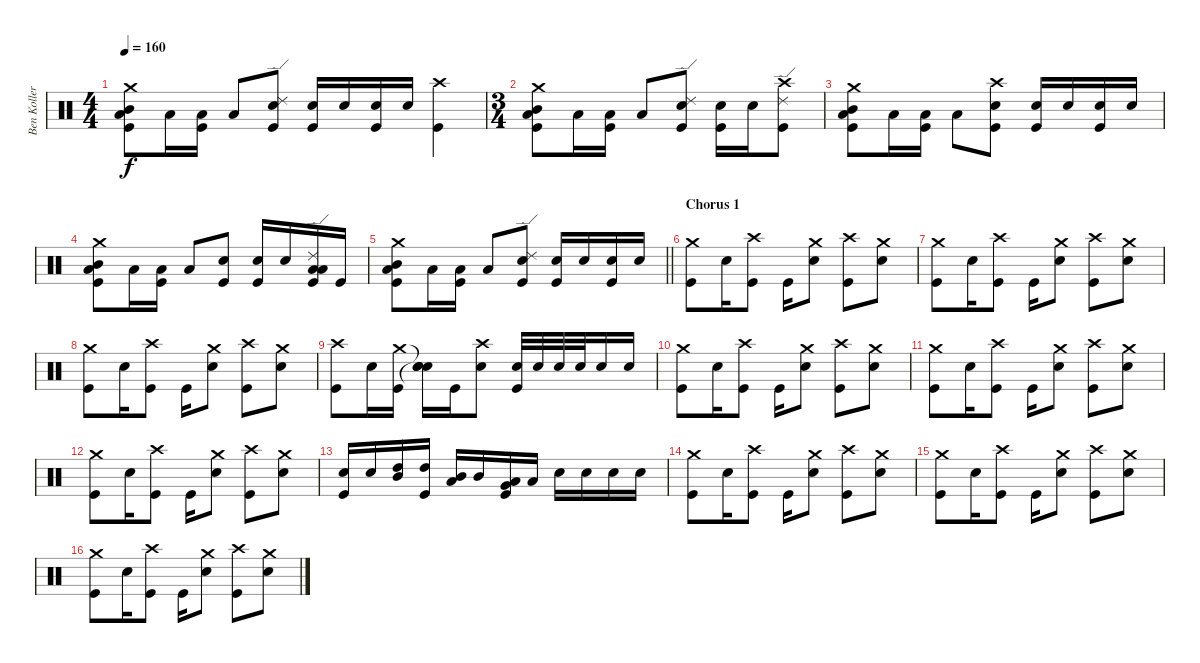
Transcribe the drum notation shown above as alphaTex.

\track ("Ben Koller" "Ben Koller") {instrument percussion}
\staff {score}
\articulation defaults
\ts (4 4)
\tempo 160
\clef neutral
\ks c
("Crash medium (hit)" "Mid Tom (hit)" "Low Tom (hit)" "Kick (hit)").8{dy f} "Low Tom (hit)".16 ("Low Tom (hit)" "Kick (hit)").16 "Low Tom (hit)".8 ("Ride (edge) 2" "Electric Snare (hit)" "Kick (hit)").8 ("Electric Snare (hit)" "Kick (hit)").16 "Electric Snare (hit)".16 ("Electric Snare (hit)" "Kick (hit)").16 "Electric Snare (hit)".16 ("Crash high (hit)" "Kick (hit)").4 |
\ts (3 4)
("Crash medium (hit)" "Mid Tom (hit)" "Low Tom (hit)" "Kick (hit)").8 "Low Tom (hit)".16 ("Low Tom (hit)" "Kick (hit)").16 "Low Tom (hit)".8 ("Ride (edge) 2" "Electric Snare (hit)" "Kick (hit)").8 ("Electric Snare (hit)" "Kick (hit)").16 "Electric Snare (hit)".16 ("Ride (edge) 2" "Crash high (hit)" "Kick (hit)").8 |
("Crash medium (hit)" "Mid Tom (hit)" "Low Tom (hit)" "Kick (hit)").8 "Low Tom (hit)".16 ("Low Tom (hit)" "Kick (hit)").16 "Low Tom (hit)".8 ("Crash high (hit)" "Electric Snare (hit)" "Kick (hit)").8 ("Electric Snare (hit)" "Kick (hit)").16 "Electric Snare (hit)".16 ("Electric Snare (hit)" "Kick (hit)").16 "Electric Snare (hit)".16 |
("Crash medium (hit)" "Mid Tom (hit)" "Low Tom (hit)" "Kick (hit)").8 "Low Tom (hit)".16 ("Low Tom (hit)" "Kick (hit)").16 "Low Tom (hit)".8 ("Electric Snare (hit)" "Kick (hit)").8 ("Electric Snare (hit)" "Kick (hit)").16 "Electric Snare (hit)".16 ("Ride (edge) 2" "Low Tom (hit)" "Low Tom (hit)" "Kick (hit)").16 "Kick (hit)".16 |
\barLineRight lightlight
("Crash medium (hit)" "Mid Tom (hit)" "Low Tom (hit)" "Kick (hit)").8 "Low Tom (hit)".16 ("Low Tom (hit)" "Kick (hit)").16 "Low Tom (hit)".8 ("Ride (edge) 2" "Electric Snare (hit)" "Kick (hit)").8 ("Electric Snare (hit)" "Kick (hit)").16 "Electric Snare (hit)".16 ("Electric Snare (hit)" "Kick (hit)").16 "Electric Snare (hit)".16 |
\section ("" "Chorus 1")
("Crash medium (hit)" "Kick (hit)").8 "Electric Snare (hit)".16 ("Crash high (hit)" "Kick (hit)").8 "Kick (hit)".16 ("Crash medium (hit)" "Electric Snare (hit)").8 ("Crash high (hit)" "Kick (hit)").8 ("Crash medium (hit)" "Electric Snare (hit)").8 |
("Crash medium (hit)" "Kick (hit)").8 "Electric Snare (hit)".16 ("Crash high (hit)" "Kick (hit)").8 "Kick (hit)".16 ("Crash medium (hit)" "Electric Snare (hit)").8 ("Crash high (hit)" "Kick (hit)").8 ("Crash medium (hit)" "Electric Snare (hit)").8 |
("Crash medium (hit)" "Kick (hit)").8 "Electric Snare (hit)".16 ("Crash high (hit)" "Kick (hit)").8 "Kick (hit)".16 ("Crash medium (hit)" "Electric Snare (hit)").8 ("Crash high (hit)" "Kick (hit)").8 ("Crash medium (hit)" "Electric Snare (hit)").8 |
("Crash high (hit)" "Kick (hit)").8 "Electric Snare (hit)".16 ("Crash medium (hit)" "Kick (hit)").16 ("Snare (hit)"{t} "Snare (hit)"{t} "Snare (hit)").16 "Kick (hit)".16 ("Crash high (hit)" "Electric Snare (hit)").8 ("Electric Snare (hit)" "Kick (hit)").32 "Electric Snare (hit)".32 "Electric Snare (hit)".32 "Electric Snare (hit)".32 "Electric Snare (hit)".16 "Electric Snare (hit)".16 |
("Crash medium (hit)" "Kick (hit)").8 "Electric Snare (hit)".16 ("Crash high (hit)" "Kick (hit)").8 "Kick (hit)".16 ("Crash medium (hit)" "Electric Snare (hit)").8 ("Crash high (hit)" "Kick (hit)").8 ("Crash medium (hit)" "Electric Snare (hit)").8 |
("Crash medium (hit)" "Kick (hit)").8 "Electric Snare (hit)".16 ("Crash high (hit)" "Kick (hit)").8 "Kick (hit)".16 ("Crash medium (hit)" "Electric Snare (hit)").8 ("Crash high (hit)" "Kick (hit)").8 ("Crash medium (hit)" "Electric Snare (hit)").8 |
("Crash medium (hit)" "Kick (hit)").8 "Electric Snare (hit)".16 ("Crash high (hit)" "Kick (hit)").8 "Kick (hit)".16 ("Crash medium (hit)" "Electric Snare (hit)").8 ("Crash high (hit)" "Kick (hit)").8 ("Crash medium (hit)" "Electric Snare (hit)").8 |
("Electric Snare (hit)" "Kick (hit)").16 "Electric Snare (hit)".16 ("High Tom (hit)" "Mid Tom (hit)").16 ("High Tom (hit)" "Kick (hit)").16 ("Mid Tom (hit)" "Low Tom (hit)").16 "Mid Tom (hit)".16 ("Low Tom (hit)" "Very Low Tom (hit)" "Kick (hit)").16 "Low Tom (hit)".16 "Electric Snare (hit)".16 "Electric Snare (hit)".16 "Electric Snare (hit)".16 "Electric Snare (hit)".16 |
("Crash medium (hit)" "Kick (hit)").8 "Electric Snare (hit)".16 ("Crash high (hit)" "Kick (hit)").8 "Kick (hit)".16 ("Crash medium (hit)" "Electric Snare (hit)").8 ("Crash high (hit)" "Kick (hit)").8 ("Crash medium (hit)" "Electric Snare (hit)").8 |
("Crash medium (hit)" "Kick (hit)").8 "Electric Snare (hit)".16 ("Crash high (hit)" "Kick (hit)").8 "Kick (hit)".16 ("Crash medium (hit)" "Electric Snare (hit)").8 ("Crash high (hit)" "Kick (hit)").8 ("Crash medium (hit)" "Electric Snare (hit)").8 |
("Crash medium (hit)" "Kick (hit)").8 "Electric Snare (hit)".16 ("Crash high (hit)" "Kick (hit)").8 "Kick (hit)".16 ("Crash medium (hit)" "Electric Snare (hit)").8 ("Crash high (hit)" "Kick (hit)").8 ("Crash medium (hit)" "Electric Snare (hit)").8
